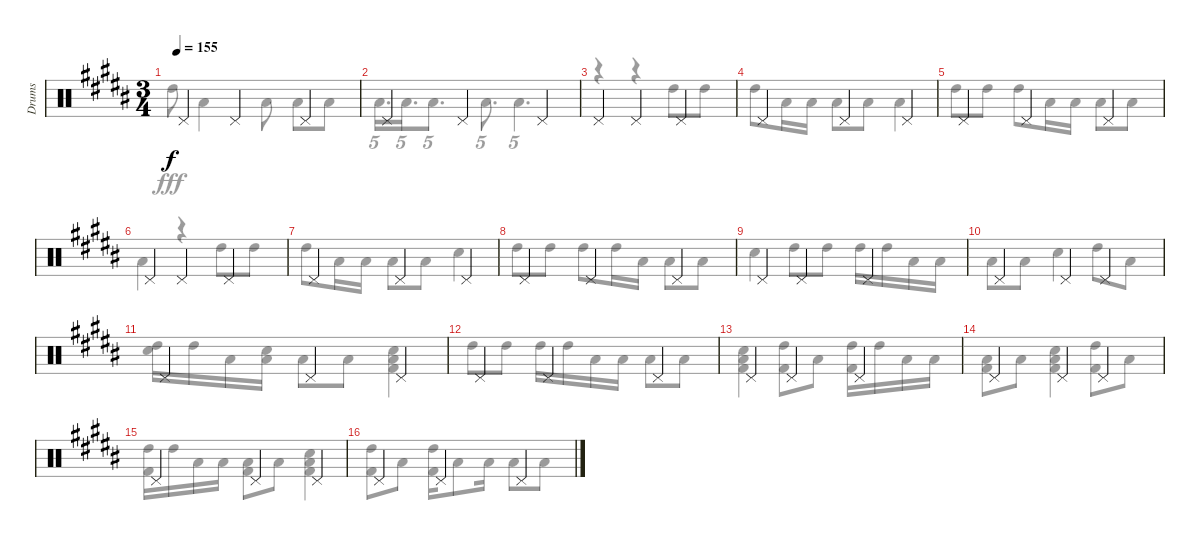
\track ("Drums" "Drums") {instrument percussion}
\staff {score}
\articulation defaults
\voice
\ts (3 4)
\tempo 155
\clef neutral
\ks b "Pedal Hi-Hat (hit)".4{dy f} "Pedal Hi-Hat (hit)".4 "Pedal Hi-Hat (hit)".4
|
"Pedal Hi-Hat (hit)".4 "Pedal Hi-Hat (hit)".4 "Pedal Hi-Hat (hit)".4 |
"Pedal Hi-Hat (hit)".4 "Pedal Hi-Hat (hit)".4 "Pedal Hi-Hat (hit)".4 |
"Pedal Hi-Hat (hit)".4 "Pedal Hi-Hat (hit)".4 "Pedal Hi-Hat (hit)".4 |
"Pedal Hi-Hat (hit)".4 "Pedal Hi-Hat (hit)".4 "Pedal Hi-Hat (hit)".4 |
"Pedal Hi-Hat (hit)".4 "Pedal Hi-Hat (hit)".4 "Pedal Hi-Hat (hit)".4 |
"Pedal Hi-Hat (hit)".4 "Pedal Hi-Hat (hit)".4 "Pedal Hi-Hat (hit)".4 |
"Pedal Hi-Hat (hit)".4 "Pedal Hi-Hat (hit)".4 "Pedal Hi-Hat (hit)".4 |
"Pedal Hi-Hat (hit)".4 "Pedal Hi-Hat (hit)".4 "Pedal Hi-Hat (hit)".4 |
"Pedal Hi-Hat (hit)".4 "Pedal Hi-Hat (hit)".4 "Pedal Hi-Hat (hit)".4 |
"Pedal Hi-Hat (hit)".4 "Pedal Hi-Hat (hit)".4 "Pedal Hi-Hat (hit)".4 |
"Pedal Hi-Hat (hit)".4 "Pedal Hi-Hat (hit)".4 "Pedal Hi-Hat (hit)".4 |
"Pedal Hi-Hat (hit)".4 "Pedal Hi-Hat (hit)".4 "Pedal Hi-Hat (hit)".4 |
"Pedal Hi-Hat (hit)".4 "Pedal Hi-Hat (hit)".4 "Pedal Hi-Hat (hit)".4 |
"Pedal Hi-Hat (hit)".4 "Pedal Hi-Hat (hit)".4 "Pedal Hi-Hat (hit)".4 |
"Pedal Hi-Hat (hit)".4 "Pedal Hi-Hat (hit)".4 "Pedal Hi-Hat (hit)".4
\voice
\clef neutral
\ottava regular
\simile none
\ks b "High Tom (hit)".8{dy fff} "Low Tom (hit)".4 "Low Tom (hit)".8 "Low Tom (hit)".8 "Low Tom (hit)".8
|
"Low Tom (hit)".16{d tu (5 4)} "Low Tom (hit)".16{d tu (5 4)} "Low Tom (hit)".8{d tu (5 4)} "Low Tom (hit)".8{d tu (5 4)} "Low Tom (hit)".4{d tu (5 4)} |
r.4 r.4 "High Tom (hit)".8 "High Tom (hit)".8 |
"High Tom (hit)".8 "Low Tom (hit)".16 "Low Tom (hit)".16 "Low Tom (hit)".8 "Low Tom (hit)".8 "Low Tom (hit)".4 |
"High Tom (hit)".8 "High Tom (hit)".8 "High Tom (hit)".8 "Low Tom (hit)".16 "Low Tom (hit)".16 "Low Tom (hit)".8 "Low Tom (hit)".8 |
"Low Tom (hit)".4 r.4 "High Tom (hit)".8 "High Tom (hit)".8 |
"High Tom (hit)".8 "Low Tom (hit)".16 "Low Tom (hit)".16 "Low Tom (hit)".8 "Low Tom (hit)".8 "Snare (hit) 2".4 |
"High Tom (hit)".8 "High Tom (hit)".8 "High Tom (hit)".8 "High Tom (hit)".16 "Low Tom (hit)".16 "Low Tom (hit)".8 "Low Tom (hit)".8 |
"Snare (hit) 2".4 "High Tom (hit)".8 "High Tom (hit)".8 "High Tom (hit)".16 "High Tom (hit)".16 "Low Tom (hit)".16 "Low Tom (hit)".16 |
"Low Tom (hit)".8 "Low Tom (hit)".8 "Snare (hit) 2".4 "High Tom (hit)".8 "Low Tom (hit)".8 |
("High Tom (hit)" "Snare (hit) 2").16 "High Tom (hit)".16 "Low Tom (hit)".16 ("Low Tom (hit)" "Snare (hit) 2").16 "Low Tom (hit)".8 "Low Tom (hit)".8 ("Low Tom (hit)" "Snare (hit) 2" "Kick (hit) 2").4 |
"High Tom (hit)".8 "High Tom (hit)".8 "High Tom (hit)".16 "High Tom (hit)".16 "Low Tom (hit)".16 "Low Tom (hit)".16 "Low Tom (hit)".8 "Low Tom (hit)".8 |
("Low Tom (hit)" "Snare (hit) 2" "Kick (hit) 2").4 ("High Tom (hit)" "Kick (hit) 2").8 "Low Tom (hit)".8 ("High Tom (hit)" "Kick (hit) 2").16 "High Tom (hit)".16 "Low Tom (hit)".16 "Low Tom (hit)".16 |
("Low Tom (hit)" "Kick (hit) 2").8 "Low Tom (hit)".8 ("Low Tom (hit)" "Snare (hit) 2" "Kick (hit) 2").4 ("High Tom (hit)" "Kick (hit) 2").8 "Low Tom (hit)".8 |
("High Tom (hit)" "Kick (hit) 2").16 "High Tom (hit)".16 "Low Tom (hit)".16 "Low Tom (hit)".16 ("Low Tom (hit)" "Kick (hit) 2").8 "Low Tom (hit)".8 ("Low Tom (hit)" "Snare (hit) 2" "Kick (hit) 2").4 |
("High Tom (hit)" "Kick (hit) 2").8 "Low Tom (hit)".8 ("High Tom (hit)" "Kick (hit) 2").16 "Low Tom (hit)".8 "Low Tom (hit)".16 "Low Tom (hit)".8 "Low Tom (hit)".8
